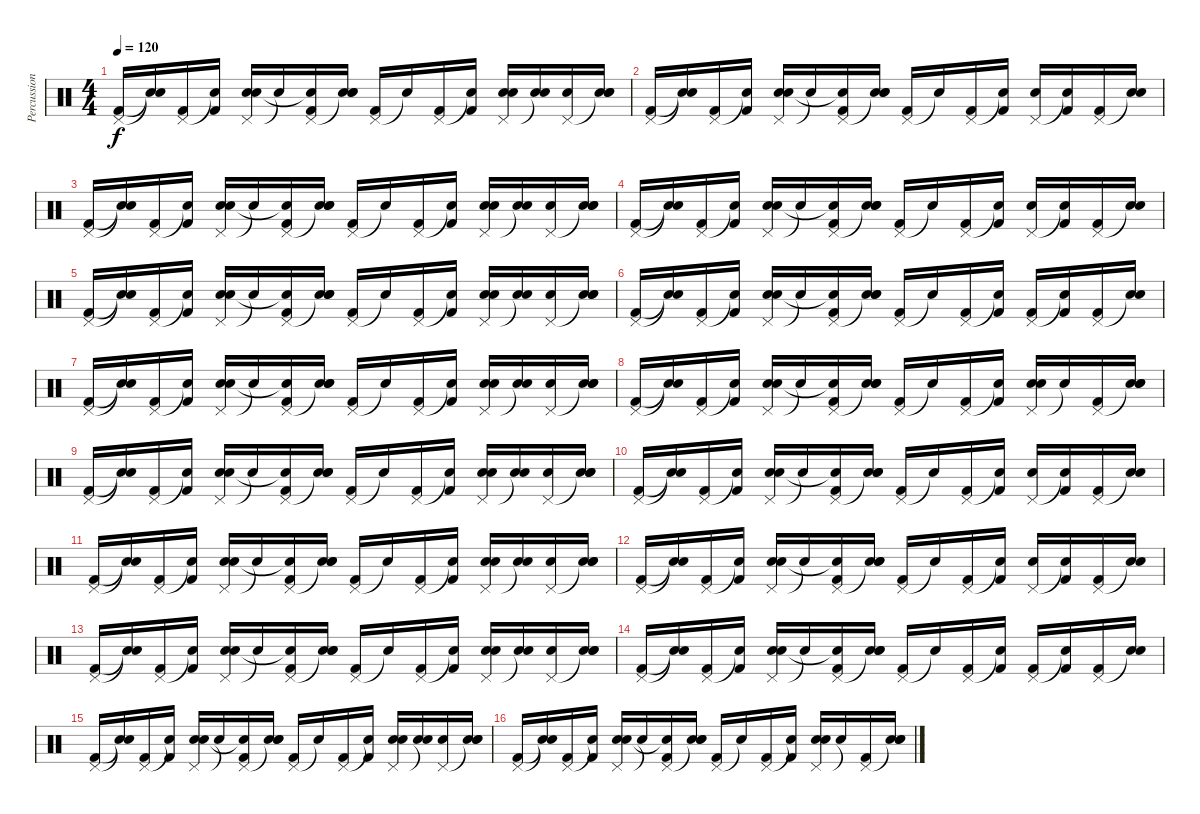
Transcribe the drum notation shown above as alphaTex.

\track ("Percussions" "Percussion") {instrument percussion}
\staff {score}
\articulation defaults
\ts (4 4)
\tempo 120
\clef neutral
\ks c
("Pedal Hi-Hat (hit)" "Kick (hit) 2").16{dy f} ("Snare (hit)"{t} "Snare (hit)"{t}).16 ("Pedal Hi-Hat (hit)" "Kick (hit) 2").16 ("Snare (hit)"{t} "Kick (hit) 2").16 ("Pedal Hi-Hat (hit)" "Electric Snare (hit)" "Snare (hit) 2").16 "Snare (hit)"{t}.16 ("Pedal Hi-Hat (hit)" "Snare (hit)"{t} "Kick (hit) 2").16 ("Snare (hit)"{t} "Electric Snare (hit)" "Snare (hit) 2").16 ("Pedal Hi-Hat (hit)" "Kick (hit) 2").16 "Snare (hit)"{t}.16 ("Pedal Hi-Hat (hit)" "Kick (hit) 2").16 ("Snare (hit)"{t} "Kick (hit) 2").16 ("Pedal Hi-Hat (hit)" "Electric Snare (hit)" "Snare (hit) 2").16 ("Snare (hit)"{t} "Snare (hit) 2").16 ("Pedal Hi-Hat (hit)" "Snare (hit) 2").16 ("Snare (hit)"{t} "Electric Snare (hit)" "Snare (hit) 2").16 |
("Pedal Hi-Hat (hit)" "Kick (hit) 2").16 ("Snare (hit)"{t} "Snare (hit)"{t}).16 ("Pedal Hi-Hat (hit)" "Kick (hit) 2").16 ("Snare (hit)"{t} "Kick (hit) 2").16 ("Pedal Hi-Hat (hit)" "Electric Snare (hit)" "Snare (hit) 2").16 "Snare (hit)"{t}.16 ("Pedal Hi-Hat (hit)" "Snare (hit)"{t} "Kick (hit) 2").16 ("Snare (hit)"{t} "Electric Snare (hit)" "Snare (hit) 2").16 ("Pedal Hi-Hat (hit)" "Kick (hit) 2").16 "Snare (hit)"{t}.16 ("Pedal Hi-Hat (hit)" "Kick (hit) 2").16 ("Snare (hit)"{t} "Kick (hit) 2").16 ("Pedal Hi-Hat (hit)" "Snare (hit) 2").16 ("Snare (hit)"{t} "Kick (hit) 2").16 ("Pedal Hi-Hat (hit)" "Kick (hit) 2").16 ("Snare (hit)"{t} "Electric Snare (hit)").16 |
("Pedal Hi-Hat (hit)" "Kick (hit) 2").16 ("Snare (hit)"{t} "Snare (hit)"{t}).16 ("Pedal Hi-Hat (hit)" "Kick (hit) 2").16 ("Snare (hit)"{t} "Kick (hit) 2").16 ("Pedal Hi-Hat (hit)" "Electric Snare (hit)" "Snare (hit) 2").16 "Snare (hit)"{t}.16 ("Pedal Hi-Hat (hit)" "Snare (hit)"{t} "Kick (hit) 2").16 ("Snare (hit)"{t} "Electric Snare (hit)" "Snare (hit) 2").16 ("Pedal Hi-Hat (hit)" "Kick (hit) 2").16 "Snare (hit)"{t}.16 ("Pedal Hi-Hat (hit)" "Kick (hit) 2").16 ("Snare (hit)"{t} "Kick (hit) 2").16 ("Pedal Hi-Hat (hit)" "Electric Snare (hit)" "Snare (hit) 2").16 ("Snare (hit)"{t} "Snare (hit) 2").16 ("Pedal Hi-Hat (hit)" "Snare (hit) 2").16 ("Snare (hit)"{t} "Electric Snare (hit)" "Snare (hit) 2").16 |
("Pedal Hi-Hat (hit)" "Kick (hit) 2").16 ("Snare (hit)"{t} "Snare (hit)"{t}).16 ("Pedal Hi-Hat (hit)" "Kick (hit) 2").16 ("Snare (hit)"{t} "Kick (hit) 2").16 ("Pedal Hi-Hat (hit)" "Electric Snare (hit)" "Snare (hit) 2").16 "Snare (hit)"{t}.16 ("Pedal Hi-Hat (hit)" "Snare (hit)"{t} "Kick (hit) 2").16 ("Snare (hit)"{t} "Electric Snare (hit)" "Snare (hit) 2").16 ("Pedal Hi-Hat (hit)" "Kick (hit) 2").16 "Snare (hit)"{t}.16 ("Pedal Hi-Hat (hit)" "Kick (hit) 2").16 ("Snare (hit)"{t} "Kick (hit) 2").16 ("Pedal Hi-Hat (hit)" "Snare (hit) 2").16 ("Snare (hit)"{t} "Kick (hit) 2").16 ("Pedal Hi-Hat (hit)" "Kick (hit) 2").16 ("Snare (hit)"{t} "Electric Snare (hit)").16 |
("Pedal Hi-Hat (hit)" "Kick (hit) 2").16 ("Snare (hit)"{t} "Snare (hit)"{t}).16 ("Pedal Hi-Hat (hit)" "Kick (hit) 2").16 ("Snare (hit)"{t} "Kick (hit) 2").16 ("Pedal Hi-Hat (hit)" "Electric Snare (hit)" "Snare (hit) 2").16 "Snare (hit)"{t}.16 ("Pedal Hi-Hat (hit)" "Snare (hit)"{t} "Kick (hit) 2").16 ("Snare (hit)"{t} "Electric Snare (hit)" "Snare (hit) 2").16 ("Pedal Hi-Hat (hit)" "Kick (hit) 2").16 "Snare (hit)"{t}.16 ("Pedal Hi-Hat (hit)" "Kick (hit) 2").16 ("Snare (hit)"{t} "Kick (hit) 2").16 ("Pedal Hi-Hat (hit)" "Electric Snare (hit)" "Snare (hit) 2").16 ("Snare (hit)"{t} "Snare (hit) 2").16 ("Pedal Hi-Hat (hit)" "Snare (hit) 2").16 ("Snare (hit)"{t} "Electric Snare (hit)" "Snare (hit) 2").16 |
("Pedal Hi-Hat (hit)" "Kick (hit) 2").16 ("Snare (hit)"{t} "Snare (hit)"{t}).16 ("Pedal Hi-Hat (hit)" "Kick (hit) 2").16 ("Snare (hit)"{t} "Kick (hit) 2").16 ("Pedal Hi-Hat (hit)" "Electric Snare (hit)" "Snare (hit) 2").16 "Snare (hit)"{t}.16 ("Pedal Hi-Hat (hit)" "Snare (hit)"{t} "Kick (hit) 2").16 ("Snare (hit)"{t} "Electric Snare (hit)" "Snare (hit) 2").16 ("Pedal Hi-Hat (hit)" "Kick (hit) 2").16 "Snare (hit)"{t}.16 ("Pedal Hi-Hat (hit)" "Kick (hit) 2").16 ("Snare (hit)"{t} "Kick (hit) 2").16 ("Pedal Hi-Hat (hit)" "Kick (hit) 2").16 ("Snare (hit)"{t} "Kick (hit) 2").16 ("Pedal Hi-Hat (hit)" "Kick (hit) 2").16 ("Snare (hit)"{t} "Electric Snare (hit)").16 |
("Pedal Hi-Hat (hit)" "Kick (hit) 2").16 ("Snare (hit)"{t} "Snare (hit)"{t}).16 ("Pedal Hi-Hat (hit)" "Kick (hit) 2").16 ("Snare (hit)"{t} "Kick (hit) 2").16 ("Pedal Hi-Hat (hit)" "Electric Snare (hit)" "Snare (hit) 2").16 "Snare (hit)"{t}.16 ("Pedal Hi-Hat (hit)" "Snare (hit)"{t} "Kick (hit) 2").16 ("Snare (hit)"{t} "Electric Snare (hit)" "Snare (hit) 2").16 ("Pedal Hi-Hat (hit)" "Kick (hit) 2").16 "Snare (hit)"{t}.16 ("Pedal Hi-Hat (hit)" "Kick (hit) 2").16 ("Snare (hit)"{t} "Kick (hit) 2").16 ("Pedal Hi-Hat (hit)" "Electric Snare (hit)" "Snare (hit) 2").16 ("Snare (hit)"{t} "Snare (hit) 2").16 ("Pedal Hi-Hat (hit)" "Snare (hit) 2").16 ("Snare (hit)"{t} "Electric Snare (hit)" "Snare (hit) 2").16 |
("Pedal Hi-Hat (hit)" "Kick (hit) 2").16 ("Snare (hit)"{t} "Snare (hit)"{t}).16 ("Pedal Hi-Hat (hit)" "Kick (hit) 2").16 ("Snare (hit)"{t} "Kick (hit) 2").16 ("Pedal Hi-Hat (hit)" "Electric Snare (hit)" "Snare (hit) 2").16 "Snare (hit)"{t}.16 ("Pedal Hi-Hat (hit)" "Snare (hit)"{t} "Kick (hit) 2").16 ("Snare (hit)"{t} "Electric Snare (hit)" "Snare (hit) 2").16 ("Pedal Hi-Hat (hit)" "Kick (hit) 2").16 "Snare (hit)"{t}.16 ("Pedal Hi-Hat (hit)" "Kick (hit) 2").16 ("Snare (hit)"{t} "Kick (hit) 2").16 ("Pedal Hi-Hat (hit)" "Electric Snare (hit)" "Snare (hit) 2").16 "Snare (hit)"{t}.16 ("Pedal Hi-Hat (hit)" "Kick (hit) 2").16 ("Snare (hit)"{t} "Electric Snare (hit)" "Snare (hit) 2").16 |
("Pedal Hi-Hat (hit)" "Kick (hit) 2").16 ("Snare (hit)"{t} "Snare (hit)"{t}).16 ("Pedal Hi-Hat (hit)" "Kick (hit) 2").16 ("Snare (hit)"{t} "Kick (hit) 2").16 ("Pedal Hi-Hat (hit)" "Electric Snare (hit)" "Snare (hit) 2").16 "Snare (hit)"{t}.16 ("Pedal Hi-Hat (hit)" "Snare (hit)"{t} "Kick (hit) 2").16 ("Snare (hit)"{t} "Electric Snare (hit)" "Snare (hit) 2").16 ("Pedal Hi-Hat (hit)" "Kick (hit) 2").16 "Snare (hit)"{t}.16 ("Pedal Hi-Hat (hit)" "Kick (hit) 2").16 ("Snare (hit)"{t} "Kick (hit) 2").16 ("Pedal Hi-Hat (hit)" "Electric Snare (hit)" "Snare (hit) 2").16 ("Snare (hit)"{t} "Snare (hit) 2").16 ("Pedal Hi-Hat (hit)" "Snare (hit) 2").16 ("Snare (hit)"{t} "Electric Snare (hit)" "Snare (hit) 2").16 |
("Pedal Hi-Hat (hit)" "Kick (hit) 2").16 ("Snare (hit)"{t} "Snare (hit)"{t}).16 ("Pedal Hi-Hat (hit)" "Kick (hit) 2").16 ("Snare (hit)"{t} "Kick (hit) 2").16 ("Pedal Hi-Hat (hit)" "Electric Snare (hit)" "Snare (hit) 2").16 "Snare (hit)"{t}.16 ("Pedal Hi-Hat (hit)" "Snare (hit)"{t} "Kick (hit) 2").16 ("Snare (hit)"{t} "Electric Snare (hit)" "Snare (hit) 2").16 ("Pedal Hi-Hat (hit)" "Kick (hit) 2").16 "Snare (hit)"{t}.16 ("Pedal Hi-Hat (hit)" "Kick (hit) 2").16 ("Snare (hit)"{t} "Kick (hit) 2").16 ("Pedal Hi-Hat (hit)" "Snare (hit) 2").16 ("Snare (hit)"{t} "Kick (hit) 2").16 ("Pedal Hi-Hat (hit)" "Kick (hit) 2").16 ("Snare (hit)"{t} "Electric Snare (hit)").16 |
("Pedal Hi-Hat (hit)" "Kick (hit) 2").16 ("Snare (hit)"{t} "Snare (hit)"{t}).16 ("Pedal Hi-Hat (hit)" "Kick (hit) 2").16 ("Snare (hit)"{t} "Kick (hit) 2").16 ("Pedal Hi-Hat (hit)" "Electric Snare (hit)" "Snare (hit) 2").16 "Snare (hit)"{t}.16 ("Pedal Hi-Hat (hit)" "Snare (hit)"{t} "Kick (hit) 2").16 ("Snare (hit)"{t} "Electric Snare (hit)" "Snare (hit) 2").16 ("Pedal Hi-Hat (hit)" "Kick (hit) 2").16 "Snare (hit)"{t}.16 ("Pedal Hi-Hat (hit)" "Kick (hit) 2").16 ("Snare (hit)"{t} "Kick (hit) 2").16 ("Pedal Hi-Hat (hit)" "Electric Snare (hit)" "Snare (hit) 2").16 ("Snare (hit)"{t} "Snare (hit) 2").16 ("Pedal Hi-Hat (hit)" "Snare (hit) 2").16 ("Snare (hit)"{t} "Electric Snare (hit)" "Snare (hit) 2").16 |
("Pedal Hi-Hat (hit)" "Kick (hit) 2").16 ("Snare (hit)"{t} "Snare (hit)"{t}).16 ("Pedal Hi-Hat (hit)" "Kick (hit) 2").16 ("Snare (hit)"{t} "Kick (hit) 2").16 ("Pedal Hi-Hat (hit)" "Electric Snare (hit)" "Snare (hit) 2").16 "Snare (hit)"{t}.16 ("Pedal Hi-Hat (hit)" "Snare (hit)"{t} "Kick (hit) 2").16 ("Snare (hit)"{t} "Electric Snare (hit)" "Snare (hit) 2").16 ("Pedal Hi-Hat (hit)" "Kick (hit) 2").16 "Snare (hit)"{t}.16 ("Pedal Hi-Hat (hit)" "Kick (hit) 2").16 ("Snare (hit)"{t} "Kick (hit) 2").16 ("Pedal Hi-Hat (hit)" "Snare (hit) 2").16 ("Snare (hit)"{t} "Kick (hit) 2").16 ("Pedal Hi-Hat (hit)" "Kick (hit) 2").16 ("Snare (hit)"{t} "Electric Snare (hit)").16 |
("Pedal Hi-Hat (hit)" "Kick (hit) 2").16 ("Snare (hit)"{t} "Snare (hit)"{t}).16 ("Pedal Hi-Hat (hit)" "Kick (hit) 2").16 ("Snare (hit)"{t} "Kick (hit) 2").16 ("Pedal Hi-Hat (hit)" "Electric Snare (hit)" "Snare (hit) 2").16 "Snare (hit)"{t}.16 ("Pedal Hi-Hat (hit)" "Snare (hit)"{t} "Kick (hit) 2").16 ("Snare (hit)"{t} "Electric Snare (hit)" "Snare (hit) 2").16 ("Pedal Hi-Hat (hit)" "Kick (hit) 2").16 "Snare (hit)"{t}.16 ("Pedal Hi-Hat (hit)" "Kick (hit) 2").16 ("Snare (hit)"{t} "Kick (hit) 2").16 ("Pedal Hi-Hat (hit)" "Electric Snare (hit)" "Snare (hit) 2").16 ("Snare (hit)"{t} "Snare (hit) 2").16 ("Pedal Hi-Hat (hit)" "Snare (hit) 2").16 ("Snare (hit)"{t} "Electric Snare (hit)" "Snare (hit) 2").16 |
("Pedal Hi-Hat (hit)" "Kick (hit) 2").16 ("Snare (hit)"{t} "Snare (hit)"{t}).16 ("Pedal Hi-Hat (hit)" "Kick (hit) 2").16 ("Snare (hit)"{t} "Kick (hit) 2").16 ("Pedal Hi-Hat (hit)" "Electric Snare (hit)" "Snare (hit) 2").16 "Snare (hit)"{t}.16 ("Pedal Hi-Hat (hit)" "Snare (hit)"{t} "Kick (hit) 2").16 ("Snare (hit)"{t} "Electric Snare (hit)" "Snare (hit) 2").16 ("Pedal Hi-Hat (hit)" "Kick (hit) 2").16 "Snare (hit)"{t}.16 ("Pedal Hi-Hat (hit)" "Kick (hit) 2").16 ("Snare (hit)"{t} "Kick (hit) 2").16 ("Pedal Hi-Hat (hit)" "Kick (hit) 2").16 ("Snare (hit)"{t} "Kick (hit) 2").16 ("Pedal Hi-Hat (hit)" "Kick (hit) 2").16 ("Snare (hit)"{t} "Electric Snare (hit)").16 |
("Pedal Hi-Hat (hit)" "Kick (hit) 2").16 ("Snare (hit)"{t} "Snare (hit)"{t}).16 ("Pedal Hi-Hat (hit)" "Kick (hit) 2").16 ("Snare (hit)"{t} "Kick (hit) 2").16 ("Pedal Hi-Hat (hit)" "Electric Snare (hit)" "Snare (hit) 2").16 "Snare (hit)"{t}.16 ("Pedal Hi-Hat (hit)" "Snare (hit)"{t} "Kick (hit) 2").16 ("Snare (hit)"{t} "Electric Snare (hit)" "Snare (hit) 2").16 ("Pedal Hi-Hat (hit)" "Kick (hit) 2").16 "Snare (hit)"{t}.16 ("Pedal Hi-Hat (hit)" "Kick (hit) 2").16 ("Snare (hit)"{t} "Kick (hit) 2").16 ("Pedal Hi-Hat (hit)" "Electric Snare (hit)" "Snare (hit) 2").16 ("Snare (hit)"{t} "Snare (hit) 2").16 ("Pedal Hi-Hat (hit)" "Snare (hit) 2").16 ("Snare (hit)"{t} "Electric Snare (hit)" "Snare (hit) 2").16 |
("Pedal Hi-Hat (hit)" "Kick (hit) 2").16 ("Snare (hit)"{t} "Snare (hit)"{t}).16 ("Pedal Hi-Hat (hit)" "Kick (hit) 2").16 ("Snare (hit)"{t} "Kick (hit) 2").16 ("Pedal Hi-Hat (hit)" "Electric Snare (hit)" "Snare (hit) 2").16 "Snare (hit)"{t}.16 ("Pedal Hi-Hat (hit)" "Snare (hit)"{t} "Kick (hit) 2").16 ("Snare (hit)"{t} "Electric Snare (hit)" "Snare (hit) 2").16 ("Pedal Hi-Hat (hit)" "Kick (hit) 2").16 "Snare (hit)"{t}.16 ("Pedal Hi-Hat (hit)" "Kick (hit) 2").16 ("Snare (hit)"{t} "Kick (hit) 2").16 ("Pedal Hi-Hat (hit)" "Electric Snare (hit)" "Snare (hit) 2").16 "Snare (hit)"{t}.16 ("Pedal Hi-Hat (hit)" "Kick (hit) 2").16 ("Snare (hit)"{t} "Electric Snare (hit)" "Snare (hit) 2").16
